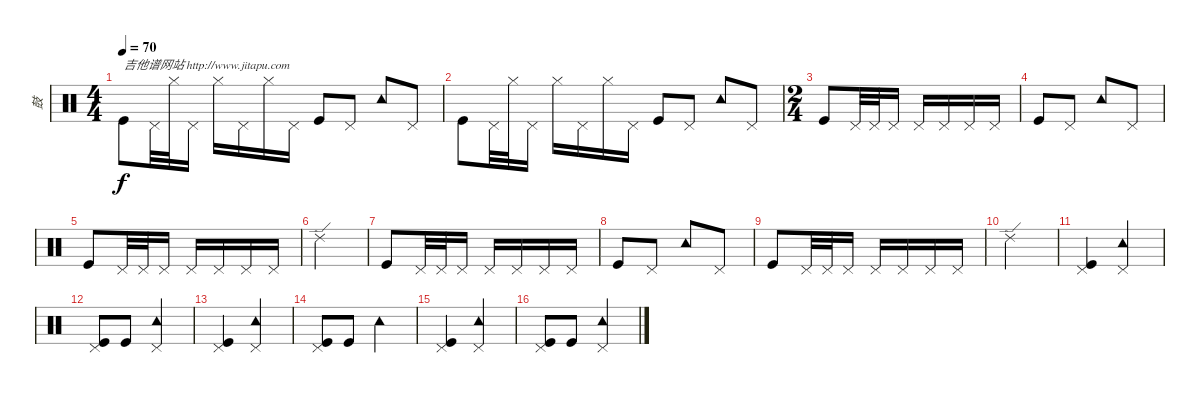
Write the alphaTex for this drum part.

\track ("鼓" "鼓") {instrument percussion}
\staff {score}
\articulation defaults
\ts (4 4)
\tempo 70
\clef neutral
\ks c "Kick (hit)".8{txt "吉他谱网站 http://www.jitapu.com" dy f} "Pedal Hi-Hat (hit)".32 "Hi-Hat (closed)".32 "Pedal Hi-Hat (hit)".16 "Hi-Hat (closed)".16 "Pedal Hi-Hat (hit)".16 "Hi-Hat (closed)".16 "Pedal Hi-Hat (hit)".16 "Kick (hit)".8 "Pedal Hi-Hat (hit)".8 "Tambourine (hit)".8 "Pedal Hi-Hat (hit)".8
|
"Kick (hit)".8 "Pedal Hi-Hat (hit)".32 "Hi-Hat (closed)".32 "Pedal Hi-Hat (hit)".16 "Hi-Hat (closed)".16 "Pedal Hi-Hat (hit)".16 "Hi-Hat (closed)".16 "Pedal Hi-Hat (hit)".16 "Kick (hit)".8 "Pedal Hi-Hat (hit)".8 "Tambourine (hit)".8 "Pedal Hi-Hat (hit)".8 |
\ts (2 4)
"Kick (hit)".8 "Pedal Hi-Hat (hit)".32 "Pedal Hi-Hat (hit)".32 "Pedal Hi-Hat (hit)".16 "Pedal Hi-Hat (hit)".16 "Pedal Hi-Hat (hit)".16 "Pedal Hi-Hat (hit)".16 "Pedal Hi-Hat (hit)".16 |
"Kick (hit)".8 "Pedal Hi-Hat (hit)".8 "Tambourine (hit)".8 "Pedal Hi-Hat (hit)".8 |
"Kick (hit)".8 "Pedal Hi-Hat (hit)".32 "Pedal Hi-Hat (hit)".32 "Pedal Hi-Hat (hit)".16 "Pedal Hi-Hat (hit)".16 "Pedal Hi-Hat (hit)".16 "Pedal Hi-Hat (hit)".16 "Pedal Hi-Hat (hit)".16 |
"Ride (edge) 2".2 |
"Kick (hit)".8 "Pedal Hi-Hat (hit)".32 "Pedal Hi-Hat (hit)".32 "Pedal Hi-Hat (hit)".16 "Pedal Hi-Hat (hit)".16 "Pedal Hi-Hat (hit)".16 "Pedal Hi-Hat (hit)".16 "Pedal Hi-Hat (hit)".16 |
"Kick (hit)".8 "Pedal Hi-Hat (hit)".8 "Tambourine (hit)".8 "Pedal Hi-Hat (hit)".8 |
"Kick (hit)".8 "Pedal Hi-Hat (hit)".32 "Pedal Hi-Hat (hit)".32 "Pedal Hi-Hat (hit)".16 "Pedal Hi-Hat (hit)".16 "Pedal Hi-Hat (hit)".16 "Pedal Hi-Hat (hit)".16 "Pedal Hi-Hat (hit)".16 |
"Ride (edge) 2".2 |
("Pedal Hi-Hat (hit)" "Kick (hit)").4 ("Pedal Hi-Hat (hit)" "Tambourine (hit)").4 |
("Pedal Hi-Hat (hit)" "Kick (hit)").8 "Kick (hit)".8 ("Pedal Hi-Hat (hit)" "Tambourine (hit)").4 |
("Pedal Hi-Hat (hit)" "Kick (hit)").4 ("Pedal Hi-Hat (hit)" "Tambourine (hit)").4 |
("Pedal Hi-Hat (hit)" "Kick (hit)").8 "Kick (hit)".8 "Tambourine (hit)".4 |
("Pedal Hi-Hat (hit)" "Kick (hit)").4 ("Pedal Hi-Hat (hit)" "Tambourine (hit)").4 |
("Pedal Hi-Hat (hit)" "Kick (hit)").8 "Kick (hit)".8 ("Pedal Hi-Hat (hit)" "Tambourine (hit)").4
